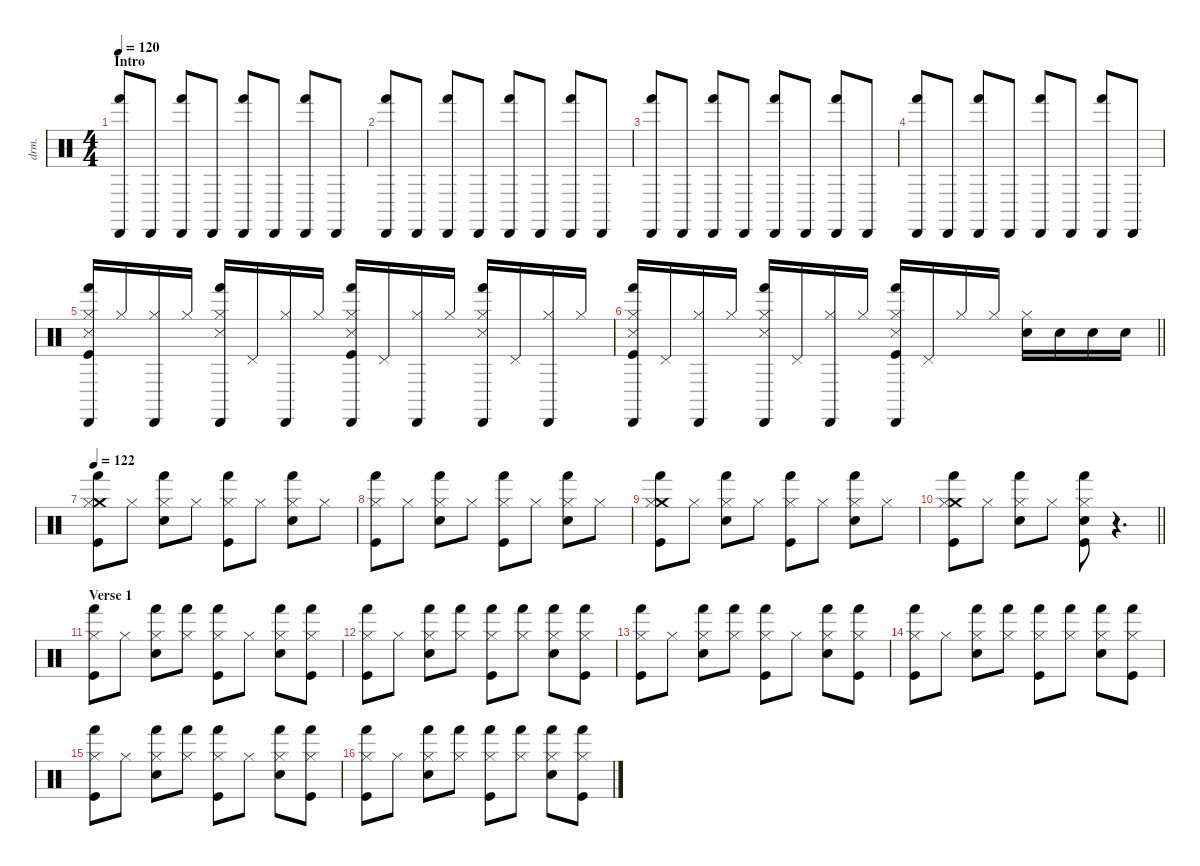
\defaultSystemsLayout 4
\hideDynamics
\bracketExtendMode nobrackets
\otherSystemsTrackNameOrientation horizontal
\track ("Drums" "drm.") {defaultSystemsLayout 4 instrument percussion}
\staff {score}
\articulation defaults
\ts (4 4)
\beaming (8 2 2 2 2)
\section ("" "Intro")
\tempo 120
\clef neutral
\ks c
("Hand (hit)" "Cabasa (hit)").8{dy mf beam Up} "Cabasa (hit)".8{beam Up} ("Hand (hit)" "Cabasa (hit)").8{beam Up} "Cabasa (hit)".8{beam Up} ("Hand (hit)" "Cabasa (hit)").8{beam Up} "Cabasa (hit)".8{beam Up} ("Hand (hit)" "Cabasa (hit)").8{beam Up} "Cabasa (hit)".8{beam Up} |
("Hand (hit)" "Cabasa (hit)").8{beam Up} "Cabasa (hit)".8{beam Up} ("Hand (hit)" "Cabasa (hit)").8{beam Up} "Cabasa (hit)".8{beam Up} ("Hand (hit)" "Cabasa (hit)").8{beam Up} "Cabasa (hit)".8{beam Up} ("Hand (hit)" "Cabasa (hit)").8{beam Up} "Cabasa (hit)".8{beam Up} |
("Hand (hit)" "Cabasa (hit)").8{beam Up} "Cabasa (hit)".8{beam Up} ("Hand (hit)" "Cabasa (hit)").8{beam Up} "Cabasa (hit)".8{beam Up} ("Hand (hit)" "Cabasa (hit)").8{beam Up} "Cabasa (hit)".8{beam Up} ("Hand (hit)" "Cabasa (hit)").8{beam Up} "Cabasa (hit)".8{beam Up} |
("Hand (hit)" "Cabasa (hit)").8{beam Up} "Cabasa (hit)".8{beam Up} ("Hand (hit)" "Cabasa (hit)").8{beam Up} "Cabasa (hit)".8{beam Up} ("Hand (hit)" "Cabasa (hit)").8{beam Up} "Cabasa (hit)".8{beam Up} ("Hand (hit)" "Cabasa (hit)").8{beam Up} "Cabasa (hit)".8{beam Up} |
("Hi-Hat (closed)" "Cabasa (hit)" "Snare (side stick) 3" "Hand (hit)" "Kick (hit)").16{beam Up} "Hi-Hat (closed)".16{beam Up} ("Hi-Hat (closed)" "Cabasa (hit)").16{beam Up} "Hi-Hat (closed)".16{beam Up} ("Cabasa (hit)" "Hand (hit)" "Snare (side stick) 3" "Hi-Hat (closed)").16{beam Up} "Pedal Hi-Hat (hit)".16{beam Up} ("Cabasa (hit)" "Hi-Hat (closed)").16{beam Up} "Hi-Hat (closed)".16{beam Up} ("Cabasa (hit)" "Hand (hit)" "Hi-Hat (closed)" "Kick (hit)" "Snare (side stick) 3").16{beam Up} "Pedal Hi-Hat (hit)".16{beam Up} ("Hi-Hat (closed)" "Cabasa (hit)").16{beam Up} "Hi-Hat (closed)".16{beam Up} ("Hand (hit)" "Snare (side stick) 3" "Hi-Hat (closed)" "Cabasa (hit)").16{beam Up} "Pedal Hi-Hat (hit)".16{beam Up} ("Cabasa (hit)" "Hi-Hat (closed)").16{beam Up} "Hi-Hat (closed)".16{beam Up} |
\barLineRight lightlight
("Hand (hit)" "Kick (hit)" "Cabasa (hit)" "Snare (side stick) 3" "Hi-Hat (closed)").16{beam Up} "Pedal Hi-Hat (hit)".16{beam Up} ("Cabasa (hit)" "Hi-Hat (closed)").16{beam Up} "Hi-Hat (closed)".16{beam Up} ("Hand (hit)" "Snare (side stick) 3" "Cabasa (hit)" "Hi-Hat (closed)").16{beam Up} "Pedal Hi-Hat (hit)".16{beam Up} ("Cabasa (hit)" "Hi-Hat (closed)").16{beam Up} "Hi-Hat (closed)".16{beam Up} ("Cabasa (hit)" "Hand (hit)" "Snare (side stick) 3" "Kick (hit)" "Hi-Hat (closed)").16{beam Up} "Pedal Hi-Hat (hit)".16{beam Up} "Hi-Hat (closed)".16{beam Up} "Hi-Hat (closed)".16{beam Up} ("Snare (hit) 2" "Hi-Hat (closed)").16{dy fff beam Down} "Snare (hit) 2".16{dy ff beam Down} "Snare (hit) 2".16{dy fff beam Down} "Snare (hit) 2".16{dy ff beam Down} |
\tempo 122
("Crash medium (hit)" "Hand (hit)" "Hi-Hat (closed)" "Kick (hit)").8{dy fff beam Down} "Hi-Hat (closed)".8{beam Down} ("Snare (hit) 2" "Hi-Hat (closed)" "Hand (hit)").8{beam Down} "Hi-Hat (closed)".8{beam Down} ("Hi-Hat (closed)" "Hand (hit)" "Kick (hit)").8{beam Down} "Hi-Hat (closed)".8{beam Down} ("Snare (hit) 2" "Hand (hit)" "Hi-Hat (closed)").8{beam Down} "Hi-Hat (closed)".8{beam Down} |
("Hi-Hat (closed)" "Hand (hit)" "Kick (hit)").8{beam Down} "Hi-Hat (closed)".8{beam Down} ("Hand (hit)" "Hi-Hat (closed)" "Snare (hit) 2").8{beam Down} "Hi-Hat (closed)".8{beam Down} ("Hi-Hat (closed)" "Hand (hit)" "Kick (hit)").8{beam Down} "Hi-Hat (closed)".8{beam Down} ("Hand (hit)" "Hi-Hat (closed)" "Snare (hit) 2").8{beam Down} "Hi-Hat (closed)".8{beam Down} |
("Crash medium (hit)" "Hand (hit)" "Hi-Hat (closed)" "Kick (hit)").8{beam Down} "Hi-Hat (closed)".8{beam Down} ("Snare (hit) 2" "Hi-Hat (closed)" "Hand (hit)").8{beam Down} "Hi-Hat (closed)".8{beam Down} ("Hi-Hat (closed)" "Hand (hit)" "Kick (hit)").8{beam Down} "Hi-Hat (closed)".8{beam Down} ("Snare (hit) 2" "Hand (hit)" "Hi-Hat (closed)").8{beam Down} "Hi-Hat (closed)".8{beam Down} |
\barLineRight lightlight
("Crash medium (hit)" "Hand (hit)" "Hi-Hat (closed)" "Kick (hit)").8{beam Down} "Hi-Hat (closed)".8{beam Down} ("Snare (hit) 2" "Hi-Hat (closed)" "Hand (hit)").8{beam Down} "Hi-Hat (closed)".8{beam Down} ("Hand (hit)" "Hi-Hat (closed)" "Kick (hit)" "Snare (hit) 2").8{beam Down} r.4{d beam Down} |
\section ("" "Verse 1")
("Hi-Hat (closed)" "Kick (hit)" "Hand (hit)").8{beam Down} "Hi-Hat (closed)".8{beam Down} ("Snare (hit) 2" "Hi-Hat (closed)" "Hand (hit)").8{beam Down} ("Hand (hit)" "Hi-Hat (closed)").8{beam Down} ("Hand (hit)" "Kick (hit)" "Hi-Hat (closed)").8{beam Down} "Hi-Hat (closed)".8{beam Down} ("Hi-Hat (closed)" "Hand (hit)" "Snare (hit) 2").8{beam Down} ("Hi-Hat (closed)" "Hand (hit)" "Kick (hit)").8{beam Down} |
("Hi-Hat (closed)" "Kick (hit)" "Hand (hit)").8{beam Down} "Hi-Hat (closed)".8{beam Down} ("Snare (hit) 2" "Hand (hit)" "Hi-Hat (closed)").8{beam Down} ("Hand (hit)" "Hi-Hat (closed)").8{beam Down} ("Hand (hit)" "Hi-Hat (closed)" "Kick (hit)").8{beam Down} ("Hand (hit)" "Hi-Hat (closed)").8{beam Down} ("Hi-Hat (closed)" "Hand (hit)" "Snare (hit) 2").8{beam Down} ("Hand (hit)" "Hi-Hat (closed)" "Kick (hit)").8{beam Down} |
("Hi-Hat (closed)" "Kick (hit)" "Hand (hit)").8{beam Down} "Hi-Hat (closed)".8{beam Down} ("Snare (hit) 2" "Hi-Hat (closed)" "Hand (hit)").8{beam Down} ("Hand (hit)" "Hi-Hat (closed)").8{beam Down} ("Hand (hit)" "Kick (hit)" "Hi-Hat (closed)").8{beam Down} "Hi-Hat (closed)".8{beam Down} ("Hi-Hat (closed)" "Hand (hit)" "Snare (hit) 2").8{beam Down} ("Hi-Hat (closed)" "Hand (hit)" "Kick (hit)").8{beam Down} |
("Hi-Hat (closed)" "Kick (hit)" "Hand (hit)").8{beam Down} "Hi-Hat (closed)".8{beam Down} ("Snare (hit) 2" "Hand (hit)" "Hi-Hat (closed)").8{beam Down} ("Hand (hit)" "Hi-Hat (closed)").8{beam Down} ("Hand (hit)" "Hi-Hat (closed)" "Kick (hit)").8{beam Down} ("Hand (hit)" "Hi-Hat (closed)").8{beam Down} ("Hi-Hat (closed)" "Hand (hit)" "Snare (hit) 2").8{beam Down} ("Hand (hit)" "Hi-Hat (closed)" "Kick (hit)").8{beam Down} |
("Hi-Hat (closed)" "Kick (hit)" "Hand (hit)").8{beam Down} "Hi-Hat (closed)".8{beam Down} ("Snare (hit) 2" "Hi-Hat (closed)" "Hand (hit)").8{beam Down} ("Hand (hit)" "Hi-Hat (closed)").8{beam Down} ("Hand (hit)" "Kick (hit)" "Hi-Hat (closed)").8{beam Down} "Hi-Hat (closed)".8{beam Down} ("Hi-Hat (closed)" "Hand (hit)" "Snare (hit) 2").8{beam Down} ("Hi-Hat (closed)" "Hand (hit)" "Kick (hit)").8{beam Down} |
("Hi-Hat (closed)" "Kick (hit)" "Hand (hit)").8{beam Down} "Hi-Hat (closed)".8{beam Down} ("Snare (hit) 2" "Hand (hit)" "Hi-Hat (closed)").8{beam Down} ("Hand (hit)" "Hi-Hat (closed)").8{beam Down} ("Hand (hit)" "Hi-Hat (closed)" "Kick (hit)").8{beam Down} ("Hand (hit)" "Hi-Hat (closed)").8{beam Down} ("Hi-Hat (closed)" "Hand (hit)" "Snare (hit) 2").8{beam Down} ("Hand (hit)" "Hi-Hat (closed)" "Kick (hit)").8{beam Down}
